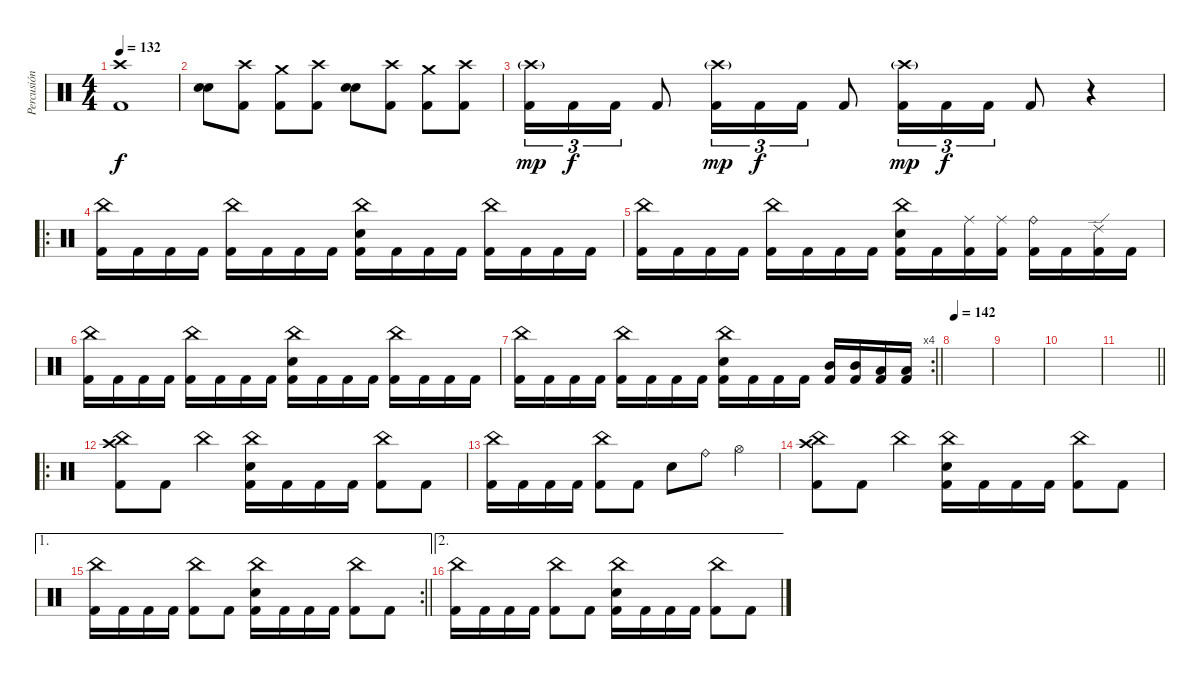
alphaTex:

\track ("Percusión" "Percusión") {instrument percussion}
\staff
\articulation defaults
\ts (4 4)
\section ("" "")
\tempo 132
\clef neutral
\ks c
("Kick (hit) 2" "Crash high (hit)").1{dy f} |
("Electric Snare (hit)" "Snare (hit) 2").8 ("Kick (hit) 2" "Crash high (hit)").8 ("Kick (hit) 2" "Crash medium (hit)").8 ("Kick (hit) 2" "Crash high (hit)").8 ("Electric Snare (hit)" "Snare (hit) 2").8 ("Kick (hit) 2" "Crash high (hit)").8 ("Kick (hit) 2" "Crash medium (hit)").8 ("Kick (hit) 2" "Crash high (hit)").8 |
("Kick (hit) 2" "Crash high (hit)"{g}).16{tu (3 2) dy mp} "Kick (hit) 2".16{tu (3 2) dy f} "Kick (hit) 2".16{tu (3 2)} "Kick (hit) 2".8 ("Kick (hit) 2" "Crash high (hit)"{g}).16{tu (3 2) dy mp} "Kick (hit) 2".16{tu (3 2) dy f} "Kick (hit) 2".16{tu (3 2)} "Kick (hit) 2".8 ("Kick (hit) 2" "Crash high (hit)"{g}).16{tu (3 2) dy mp} "Kick (hit) 2".16{tu (3 2) dy f} "Kick (hit) 2".16{tu (3 2)} "Kick (hit) 2".8 r.4 |
\ro
("Kick (hit) 2" "China (hit)").16 "Kick (hit) 2".16 "Kick (hit) 2".16 "Kick (hit) 2".16 ("Kick (hit) 2" "China (hit)").16 "Kick (hit) 2".16 "Kick (hit) 2".16 "Kick (hit) 2".16 ("Kick (hit) 2" "China (hit)" "Electric Snare (hit)").16 "Kick (hit) 2".16 "Kick (hit) 2".16 "Kick (hit) 2".16 ("Kick (hit) 2" "China (hit)").16 "Kick (hit) 2".16 "Kick (hit) 2".16 "Kick (hit) 2".16 |
("Kick (hit) 2" "China (hit)").16 "Kick (hit) 2".16 "Kick (hit) 2".16 "Kick (hit) 2".16 ("Kick (hit) 2" "China (hit)").16 "Kick (hit) 2".16 "Kick (hit) 2".16 "Kick (hit) 2".16 ("Kick (hit) 2" "China (hit)" "Electric Snare (hit)").16 "Kick (hit) 2".16 ("Kick (hit) 2" "Ride (middle)").16 ("Kick (hit) 2" "Ride (middle)").16 ("Kick (hit) 2" "Ride (bell)").16 "Kick (hit) 2".16 ("Kick (hit) 2" "Ride (edge) 2").16 "Kick (hit) 2".16 |
("Kick (hit) 2" "China (hit)").16 "Kick (hit) 2".16 "Kick (hit) 2".16 "Kick (hit) 2".16 ("Kick (hit) 2" "China (hit)").16 "Kick (hit) 2".16 "Kick (hit) 2".16 "Kick (hit) 2".16 ("Kick (hit) 2" "China (hit)" "Electric Snare (hit)").16 "Kick (hit) 2".16 "Kick (hit) 2".16 "Kick (hit) 2".16 ("Kick (hit) 2" "China (hit)").16 "Kick (hit) 2".16 "Kick (hit) 2".16 "Kick (hit) 2".16 |
\rc 4
\barLineRight lightlight
("Kick (hit) 2" "China (hit)").16 "Kick (hit) 2".16 "Kick (hit) 2".16 "Kick (hit) 2".16 ("Kick (hit) 2" "China (hit)").16 "Kick (hit) 2".16 "Kick (hit) 2".16 "Kick (hit) 2".16 ("Kick (hit) 2" "China (hit)" "Electric Snare (hit)").16 "Kick (hit) 2".16 "Kick (hit) 2".16 "Kick (hit) 2".16 ("Kick (hit) 2" "Mid Tom (hit)").16 ("Kick (hit) 2" "Mid Tom (hit)").16 ("Kick (hit) 2" "Low Tom (hit)").16 ("Kick (hit) 2" "Low Tom (hit)").16 |
\section ("" "")
\tempo 142
|
|
|
\barLineRight lightlight
|
\ro
\section ("" "")
("Kick (hit) 2" "Crash high (hit)" "China (hit)").8 "Kick (hit) 2".8 "China (hit)".4 ("Kick (hit) 2" "China (hit)" "Electric Snare (hit)").16 "Kick (hit) 2".16 "Kick (hit) 2".16 "Kick (hit) 2".16 ("Kick (hit) 2" "China (hit)").8 "Kick (hit) 2".8 |
("Kick (hit) 2" "China (hit)").16 "Kick (hit) 2".16 "Kick (hit) 2".16 "Kick (hit) 2".16 ("Kick (hit) 2" "China (hit)").8 "Kick (hit) 2".8 "Electric Snare (hit)".8 "Ride (bell)".8 "Hi-Hat (open)".4 |
("Kick (hit) 2" "Crash high (hit)" "China (hit)").8 "Kick (hit) 2".8 "China (hit)".4 ("Kick (hit) 2" "China (hit)" "Electric Snare (hit)").16 "Kick (hit) 2".16 "Kick (hit) 2".16 "Kick (hit) 2".16 ("Kick (hit) 2" "China (hit)").8 "Kick (hit) 2".8 |
\ae 1
\rc 2
\barLineRight lightlight
("Kick (hit) 2" "China (hit)").16 "Kick (hit) 2".16 "Kick (hit) 2".16 "Kick (hit) 2".16 ("Kick (hit) 2" "China (hit)").8 "Kick (hit) 2".8 ("Kick (hit) 2" "China (hit)" "Electric Snare (hit)").16 "Kick (hit) 2".16 "Kick (hit) 2".16 "Kick (hit) 2".16 ("Kick (hit) 2" "China (hit)").8 "Kick (hit) 2".8 |
\ae 2
("Kick (hit) 2" "China (hit)").16 "Kick (hit) 2".16 "Kick (hit) 2".16 "Kick (hit) 2".16 ("Kick (hit) 2" "China (hit)").8 "Kick (hit) 2".8 ("Kick (hit) 2" "China (hit)" "Electric Snare (hit)").16 "Kick (hit) 2".16 "Kick (hit) 2".16 "Kick (hit) 2".16 ("Kick (hit) 2" "China (hit)").8 "Kick (hit) 2".8
